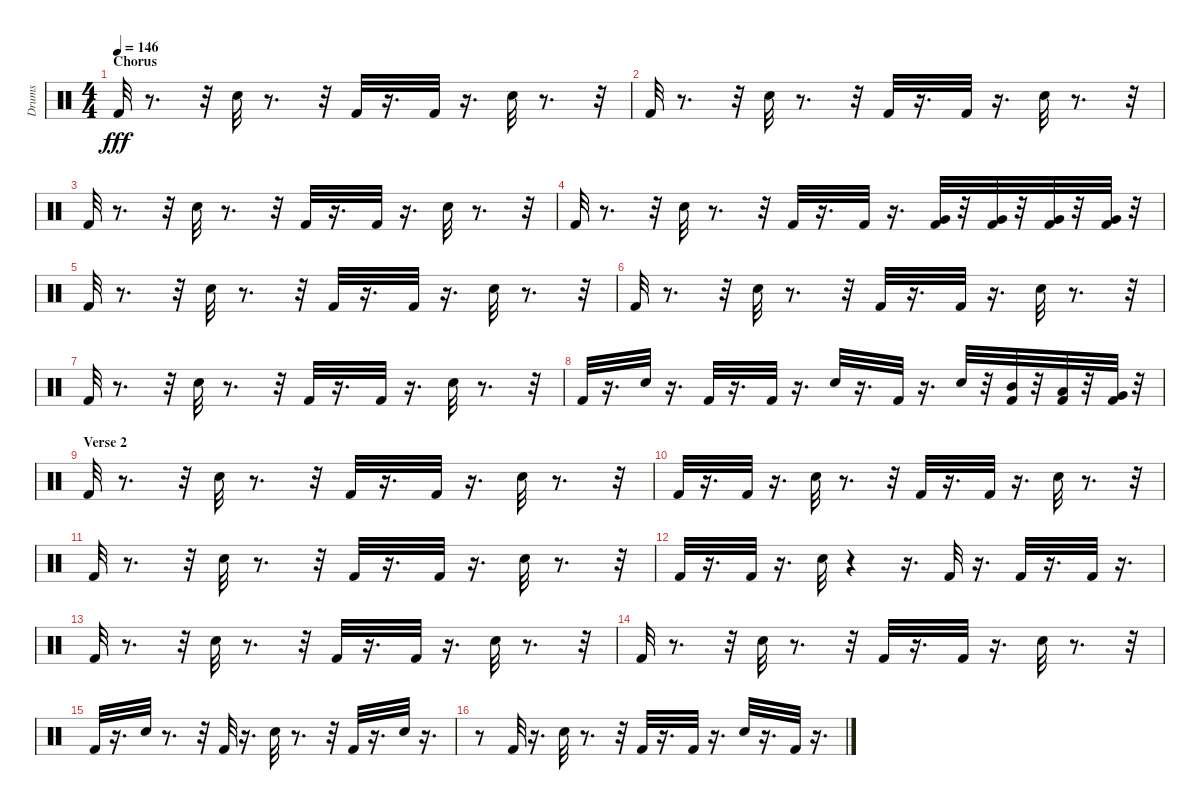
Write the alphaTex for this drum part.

\track ("Drums" "Drums") {instrument percussion}
\staff {score}
\articulation defaults
\ts (4 4)
\section ("" "Chorus")
\tempo 146
\clef neutral
\ks c "Kick (hit) 2".32{dy fff}
r.8{d} r.32 "Snare (hit) 2".32 r.8{d} r.32 "Kick (hit) 2".32 r.16{d} "Kick (hit) 2".32 r.16{d} "Snare (hit) 2".32 r.8{d} r.32 |
"Kick (hit) 2".32 r.8{d} r.32 "Snare (hit) 2".32 r.8{d} r.32 "Kick (hit) 2".32 r.16{d} "Kick (hit) 2".32 r.16{d} "Snare (hit) 2".32 r.8{d} r.32 |
"Kick (hit) 2".32 r.8{d} r.32 "Snare (hit) 2".32 r.8{d} r.32 "Kick (hit) 2".32 r.16{d} "Kick (hit) 2".32 r.16{d} "Snare (hit) 2".32 r.8{d} r.32 |
"Kick (hit) 2".32 r.8{d} r.32 "Snare (hit) 2".32 r.8{d} r.32 "Kick (hit) 2".32 r.16{d} "Kick (hit) 2".32 r.16{d} ("Kick (hit) 2" "Very Low Tom (hit)").32 r.32 ("Kick (hit) 2" "Very Low Tom (hit)").32 r.32 ("Kick (hit) 2" "Very Low Tom (hit)").32 r.32 ("Kick (hit) 2" "Very Low Tom (hit)").32 r.32 |
"Kick (hit) 2".32 r.8{d} r.32 "Snare (hit) 2".32 r.8{d} r.32 "Kick (hit) 2".32 r.16{d} "Kick (hit) 2".32 r.16{d} "Snare (hit) 2".32 r.8{d} r.32 |
"Kick (hit) 2".32 r.8{d} r.32 "Snare (hit) 2".32 r.8{d} r.32 "Kick (hit) 2".32 r.16{d} "Kick (hit) 2".32 r.16{d} "Snare (hit) 2".32 r.8{d} r.32 |
"Kick (hit) 2".32 r.8{d} r.32 "Snare (hit) 2".32 r.8{d} r.32 "Kick (hit) 2".32 r.16{d} "Kick (hit) 2".32 r.16{d} "Snare (hit) 2".32 r.8{d} r.32 |
"Kick (hit) 2".32 r.16{d} "Snare (hit) 2".32 r.16{d} "Kick (hit) 2".32 r.16{d} "Kick (hit) 2".32 r.16{d} "Snare (hit) 2".32 r.16{d} "Kick (hit) 2".32 r.16{d} "Snare (hit) 2".32 r.32 ("Mid Tom (hit)" "Kick (hit) 2").32 r.32 ("Low Tom (hit)" "Kick (hit) 2").32 r.32 ("Very Low Tom (hit)" "Kick (hit) 2").32 r.32 |
\section ("" "Verse 2")
"Kick (hit) 2".32 r.8{d} r.32 "Snare (hit) 2".32 r.8{d} r.32 "Kick (hit) 2".32 r.16{d} "Kick (hit) 2".32 r.16{d} "Snare (hit) 2".32 r.8{d} r.32 |
"Kick (hit) 2".32 r.16{d} "Kick (hit) 2".32 r.16{d} "Snare (hit) 2".32 r.8{d} r.32 "Kick (hit) 2".32 r.16{d} "Kick (hit) 2".32 r.16{d} "Snare (hit) 2".32 r.8{d} r.32 |
"Kick (hit) 2".32 r.8{d} r.32 "Snare (hit) 2".32 r.8{d} r.32 "Kick (hit) 2".32 r.16{d} "Kick (hit) 2".32 r.16{d} "Snare (hit) 2".32 r.8{d} r.32 |
"Kick (hit) 2".32 r.16{d} "Kick (hit) 2".32 r.16{d} "Snare (hit) 2".32 r.4 r.16{d} "Kick (hit) 2".32 r.16{d} "Kick (hit) 2".32 r.16{d} "Kick (hit) 2".32 r.16{d} |
"Kick (hit) 2".32 r.8{d} r.32 "Snare (hit) 2".32 r.8{d} r.32 "Kick (hit) 2".32 r.16{d} "Kick (hit) 2".32 r.16{d} "Snare (hit) 2".32 r.8{d} r.32 |
"Kick (hit) 2".32 r.8{d} r.32 "Snare (hit) 2".32 r.8{d} r.32 "Kick (hit) 2".32 r.16{d} "Kick (hit) 2".32 r.16{d} "Snare (hit) 2".32 r.8{d} r.32 |
"Kick (hit) 2".32 r.16{d} "Snare (hit) 2".32 r.8{d} r.32 "Kick (hit) 2".32 r.16{d} "Snare (hit) 2".32 r.8{d} r.32 "Kick (hit) 2".32 r.16{d} "Snare (hit) 2".32 r.16{d} |
r.8 "Kick (hit) 2".32 r.16{d} "Snare (hit) 2".32 r.8{d} r.32 "Kick (hit) 2".32 r.16{d} "Kick (hit) 2".32 r.16{d} "Snare (hit) 2".32 r.16{d} "Kick (hit) 2".32 r.16{d}
